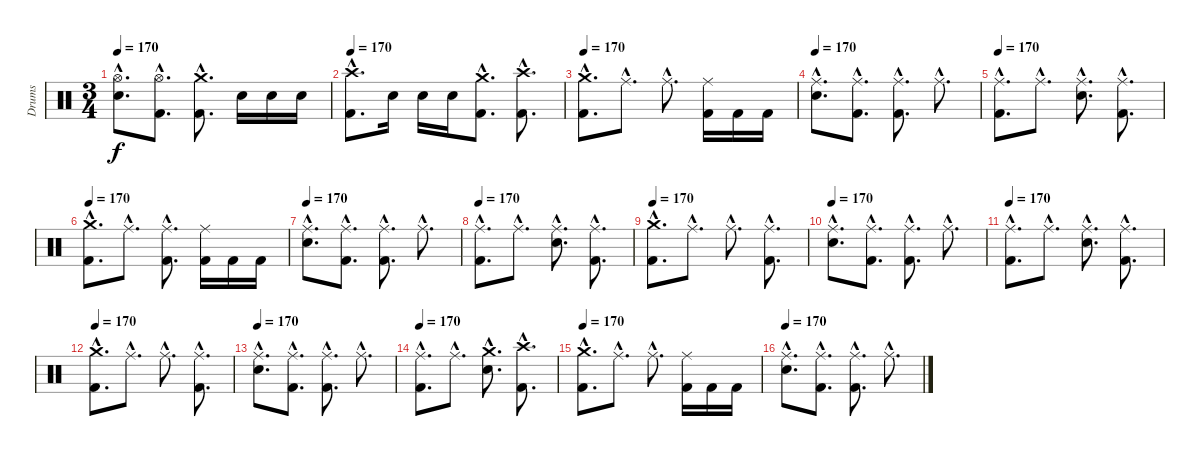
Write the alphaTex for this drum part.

\track ("Drums" "Drums") {instrument percussion}
\staff {score}
\articulation defaults
\ts (3 4)
\tempo 170
\clef neutral
\ks c
("Hi-Hat (open)"{hac} "Snare (hit) 2"{hac}).8{d dy f} ("Hi-Hat (open)"{hac} "Kick (hit) 2"{hac}).8{d} ("Crash medium (hit)"{hac} "Kick (hit) 2"{hac}).8{d} "Snare (hit) 2".16 "Snare (hit) 2".16 "Snare (hit) 2".16 |
\tempo 170
("Crash high (hit)"{hac} "Kick (hit) 2"{hac}).8{d} "Snare (hit) 2".16 "Snare (hit) 2".16 "Snare (hit) 2".16 ("Crash medium (hit)"{hac} "Kick (hit) 2"{hac}).8{d} ("Crash high (hit)"{hac} "Kick (hit) 2"{hac}).8{d} |
\tempo 170
("Crash medium (hit)"{hac} "Kick (hit) 2"{hac}).8{d} "Ride (middle)"{hac}.8{d} "Ride (middle)"{hac}.8{d} ("Ride (middle)" "Kick (hit) 2").16 "Kick (hit) 2".16 "Kick (hit) 2".16 |
\tempo 170
("Ride (middle)"{hac} "Snare (hit) 2"{hac}).8{d} ("Ride (middle)"{hac} "Kick (hit) 2"{hac}).8{d} ("Ride (middle)"{hac} "Kick (hit) 2"{hac}).8{d} "Ride (middle)"{hac}.8{d} |
\tempo 170
("Ride (middle)"{hac} "Kick (hit) 2"{hac}).8{d} "Ride (middle)"{hac}.8{d} ("Ride (middle)"{hac} "Snare (hit) 2"{hac}).8{d} ("Ride (middle)"{hac} "Kick (hit) 2"{hac}).8{d} |
\tempo 170
("Crash medium (hit)"{hac} "Kick (hit) 2"{hac}).8{d} "Ride (middle)"{hac}.8{d} ("Ride (middle)"{hac} "Kick (hit) 2"{hac}).8{d} ("Ride (middle)" "Kick (hit) 2").16 "Kick (hit) 2".16 "Kick (hit) 2".16 |
\tempo 170
("Ride (middle)"{hac} "Snare (hit) 2"{hac}).8{d} ("Ride (middle)"{hac} "Kick (hit) 2"{hac}).8{d} ("Ride (middle)"{hac} "Kick (hit) 2"{hac}).8{d} "Ride (middle)"{hac}.8{d} |
\tempo 170
("Ride (middle)"{hac} "Kick (hit) 2"{hac}).8{d} "Ride (middle)"{hac}.8{d} ("Ride (middle)"{hac} "Snare (hit) 2"{hac}).8{d} ("Ride (middle)"{hac} "Kick (hit) 2"{hac}).8{d} |
\tempo 170
("Crash medium (hit)"{hac} "Kick (hit) 2"{hac}).8{d} "Ride (middle)"{hac}.8{d} "Ride (middle)"{hac}.8{d} ("Ride (middle)"{hac} "Kick (hit) 2"{hac}).8{d} |
\tempo 170
("Ride (middle)"{hac} "Snare (hit) 2"{hac}).8{d} ("Ride (middle)"{hac} "Kick (hit) 2"{hac}).8{d} ("Ride (middle)"{hac} "Kick (hit) 2"{hac}).8{d} "Ride (middle)"{hac}.8{d} |
\tempo 170
("Ride (middle)"{hac} "Kick (hit) 2"{hac}).8{d} "Ride (middle)"{hac}.8{d} ("Ride (middle)"{hac} "Snare (hit) 2"{hac}).8{d} ("Ride (middle)"{hac} "Kick (hit) 2"{hac}).8{d} |
\tempo 170
("Crash medium (hit)"{hac} "Kick (hit) 2"{hac}).8{d} "Ride (middle)"{hac}.8{d} "Ride (middle)"{hac}.8{d} ("Ride (middle)"{hac} "Kick (hit) 2"{hac}).8{d} |
\tempo 170
("Ride (middle)"{hac} "Snare (hit) 2"{hac}).8{d} ("Ride (middle)"{hac} "Kick (hit) 2"{hac}).8{d} ("Ride (middle)"{hac} "Kick (hit) 2"{hac}).8{d} "Ride (middle)"{hac}.8{d} |
\tempo 170
("Ride (middle)"{hac} "Kick (hit) 2"{hac}).8{d} "Ride (middle)"{hac}.8{d} ("Crash medium (hit)"{hac} "Snare (hit) 2"{hac}).8{d} ("Crash high (hit)"{hac} "Kick (hit) 2"{hac}).8{d} |
\tempo 170
("Crash medium (hit)"{hac} "Kick (hit) 2"{hac}).8{d} "Ride (middle)"{hac}.8{d} "Ride (middle)"{hac}.8{d} ("Ride (middle)" "Kick (hit) 2").16 "Kick (hit) 2".16 "Kick (hit) 2".16 |
\tempo 170
("Ride (middle)"{hac} "Snare (hit) 2"{hac}).8{d} ("Ride (middle)"{hac} "Kick (hit) 2"{hac}).8{d} ("Ride (middle)"{hac} "Kick (hit) 2"{hac}).8{d} "Ride (middle)"{hac}.8{d}
